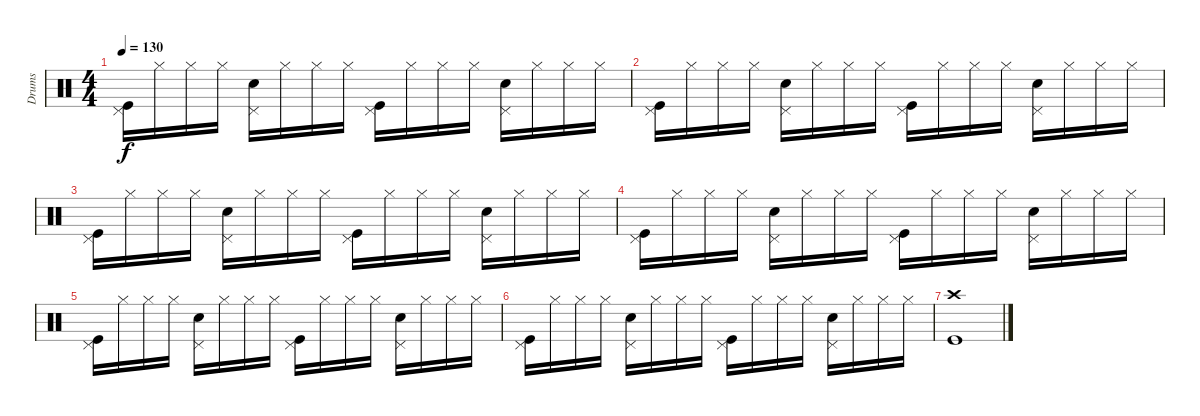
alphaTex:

\track ("Drums" "Drums") {instrument percussion}
\staff {score}
\articulation defaults
\ts (4 4)
\tempo 130
\clef neutral
\ks c
("Pedal Hi-Hat (hit)" "Kick (hit)").16{dy f} "Hi-Hat (closed)".16 "Hi-Hat (closed)".16 "Hi-Hat (closed)".16 ("Pedal Hi-Hat (hit)" "Snare (hit) 2").16 "Hi-Hat (closed)".16 "Hi-Hat (closed)".16 "Hi-Hat (closed)".16 ("Pedal Hi-Hat (hit)" "Kick (hit)").16 "Hi-Hat (closed)".16 "Hi-Hat (closed)".16 "Hi-Hat (closed)".16 ("Pedal Hi-Hat (hit)" "Snare (hit) 2").16 "Hi-Hat (closed)".16 "Hi-Hat (closed)".16 "Hi-Hat (closed)".16 |
("Pedal Hi-Hat (hit)" "Kick (hit)").16 "Hi-Hat (closed)".16 "Hi-Hat (closed)".16 "Hi-Hat (closed)".16 ("Pedal Hi-Hat (hit)" "Snare (hit) 2").16 "Hi-Hat (closed)".16 "Hi-Hat (closed)".16 "Hi-Hat (closed)".16 ("Pedal Hi-Hat (hit)" "Kick (hit)").16 "Hi-Hat (closed)".16 "Hi-Hat (closed)".16 "Hi-Hat (closed)".16 ("Pedal Hi-Hat (hit)" "Snare (hit) 2").16 "Hi-Hat (closed)".16 "Hi-Hat (closed)".16 "Hi-Hat (closed)".16 |
("Pedal Hi-Hat (hit)" "Kick (hit)").16 "Hi-Hat (closed)".16 "Hi-Hat (closed)".16 "Hi-Hat (closed)".16 ("Pedal Hi-Hat (hit)" "Snare (hit) 2").16 "Hi-Hat (closed)".16 "Hi-Hat (closed)".16 "Hi-Hat (closed)".16 ("Pedal Hi-Hat (hit)" "Kick (hit)").16 "Hi-Hat (closed)".16 "Hi-Hat (closed)".16 "Hi-Hat (closed)".16 ("Pedal Hi-Hat (hit)" "Snare (hit) 2").16 "Hi-Hat (closed)".16 "Hi-Hat (closed)".16 "Hi-Hat (closed)".16 |
("Pedal Hi-Hat (hit)" "Kick (hit)").16 "Hi-Hat (closed)".16 "Hi-Hat (closed)".16 "Hi-Hat (closed)".16 ("Pedal Hi-Hat (hit)" "Snare (hit) 2").16 "Hi-Hat (closed)".16 "Hi-Hat (closed)".16 "Hi-Hat (closed)".16 ("Pedal Hi-Hat (hit)" "Kick (hit)").16 "Hi-Hat (closed)".16 "Hi-Hat (closed)".16 "Hi-Hat (closed)".16 ("Pedal Hi-Hat (hit)" "Snare (hit) 2").16 "Hi-Hat (closed)".16 "Hi-Hat (closed)".16 "Hi-Hat (closed)".16 |
("Pedal Hi-Hat (hit)" "Kick (hit)").16 "Hi-Hat (closed)".16 "Hi-Hat (closed)".16 "Hi-Hat (closed)".16 ("Pedal Hi-Hat (hit)" "Snare (hit) 2").16 "Hi-Hat (closed)".16 "Hi-Hat (closed)".16 "Hi-Hat (closed)".16 ("Pedal Hi-Hat (hit)" "Kick (hit)").16 "Hi-Hat (closed)".16 "Hi-Hat (closed)".16 "Hi-Hat (closed)".16 ("Pedal Hi-Hat (hit)" "Snare (hit) 2").16 "Hi-Hat (closed)".16 "Hi-Hat (closed)".16 "Hi-Hat (closed)".16 |
("Pedal Hi-Hat (hit)" "Kick (hit)").16 "Hi-Hat (closed)".16 "Hi-Hat (closed)".16 "Hi-Hat (closed)".16 ("Pedal Hi-Hat (hit)" "Snare (hit) 2").16 "Hi-Hat (closed)".16 "Hi-Hat (closed)".16 "Hi-Hat (closed)".16 ("Pedal Hi-Hat (hit)" "Kick (hit)").16 "Hi-Hat (closed)".16 "Hi-Hat (closed)".16 "Hi-Hat (closed)".16 ("Pedal Hi-Hat (hit)" "Snare (hit) 2").16 "Hi-Hat (closed)".16 "Hi-Hat (closed)".16 "Hi-Hat (closed)".16 |
("Kick (hit)" "Crash high (hit)").1
